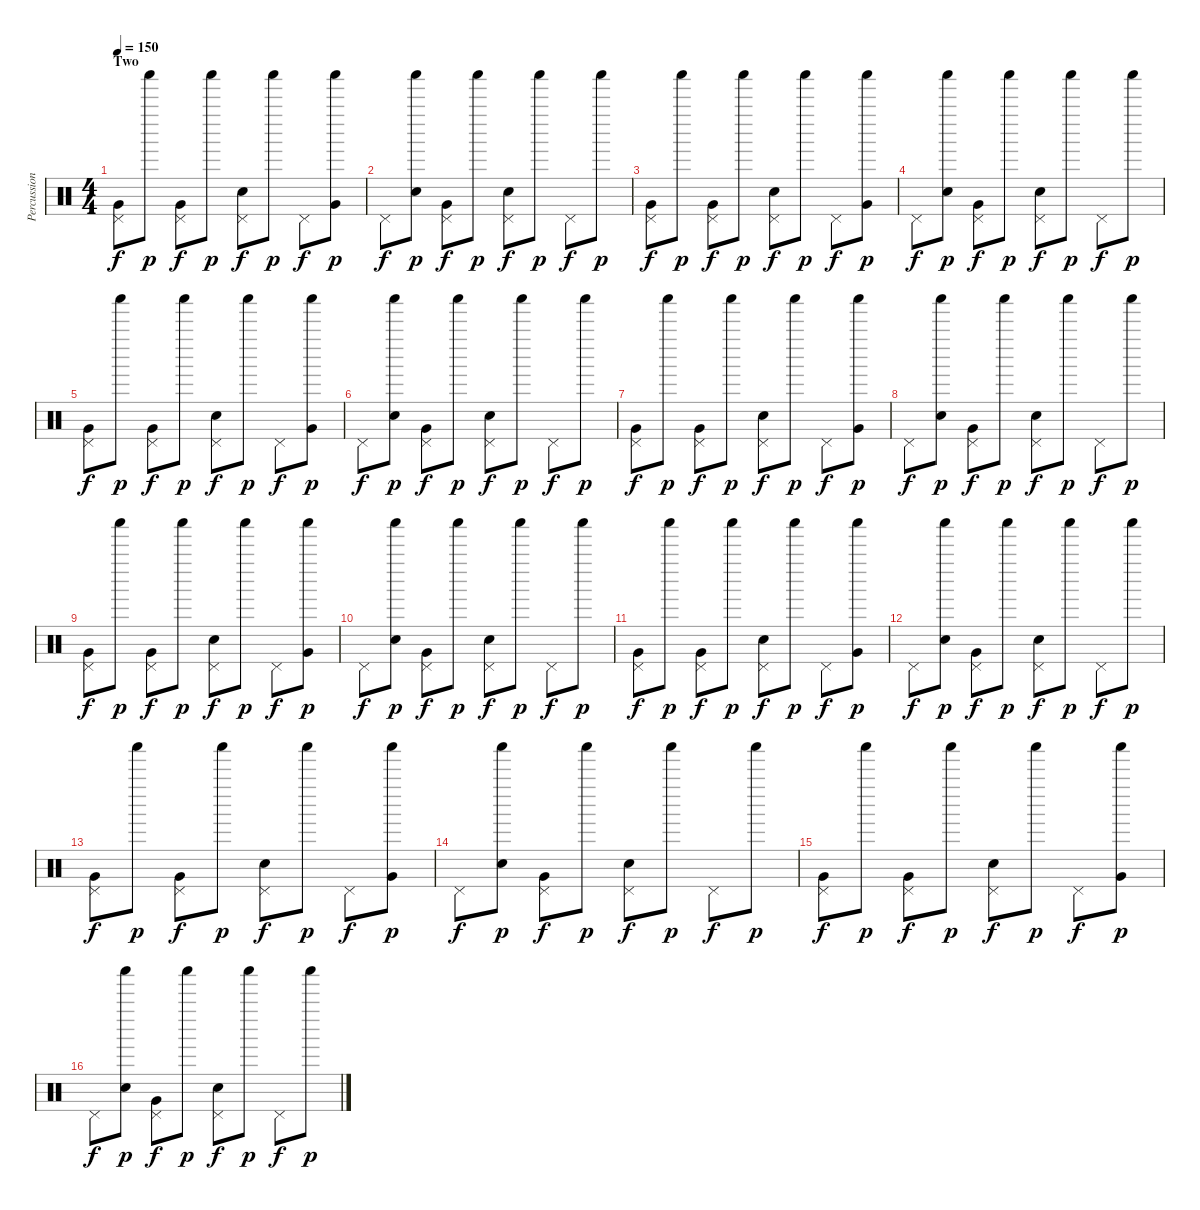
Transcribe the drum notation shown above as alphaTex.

\track ("Percussion" "Percussion") {instrument percussion}
\staff {score}
\articulation defaults
\ts (4 4)
\section ("" "Two")
\tempo 150
\clef neutral
\ks c
("Very Low Tom (hit)" "Pedal Hi-Hat (hit)").8{dy f} "Shaker (hit)".8{dy p} ("Very Low Tom (hit)" "Pedal Hi-Hat (hit)").8{dy f} "Shaker (hit)".8{dy p} ("Snare (hit) 2" "Pedal Hi-Hat (hit)").8{dy f} "Shaker (hit)".8{dy p} "Pedal Hi-Hat (hit)".8{dy f} ("Very Low Tom (hit)" "Shaker (hit)").8{dy p} |
"Pedal Hi-Hat (hit)".8{dy f} ("Snare (hit) 2" "Shaker (hit)").8{dy p} ("Very Low Tom (hit)" "Pedal Hi-Hat (hit)").8{dy f} "Shaker (hit)".8{dy p} ("Snare (hit) 2" "Pedal Hi-Hat (hit)").8{dy f} "Shaker (hit)".8{dy p} "Pedal Hi-Hat (hit)".8{dy f} "Shaker (hit)".8{dy p} |
("Very Low Tom (hit)" "Pedal Hi-Hat (hit)").8{dy f} "Shaker (hit)".8{dy p} ("Very Low Tom (hit)" "Pedal Hi-Hat (hit)").8{dy f} "Shaker (hit)".8{dy p} ("Snare (hit) 2" "Pedal Hi-Hat (hit)").8{dy f} "Shaker (hit)".8{dy p} "Pedal Hi-Hat (hit)".8{dy f} ("Very Low Tom (hit)" "Shaker (hit)").8{dy p} |
"Pedal Hi-Hat (hit)".8{dy f} ("Snare (hit) 2" "Shaker (hit)").8{dy p} ("Very Low Tom (hit)" "Pedal Hi-Hat (hit)").8{dy f} "Shaker (hit)".8{dy p} ("Snare (hit) 2" "Pedal Hi-Hat (hit)").8{dy f} "Shaker (hit)".8{dy p} "Pedal Hi-Hat (hit)".8{dy f} "Shaker (hit)".8{dy p} |
("Very Low Tom (hit)" "Pedal Hi-Hat (hit)").8{dy f} "Shaker (hit)".8{dy p} ("Very Low Tom (hit)" "Pedal Hi-Hat (hit)").8{dy f} "Shaker (hit)".8{dy p} ("Snare (hit) 2" "Pedal Hi-Hat (hit)").8{dy f} "Shaker (hit)".8{dy p} "Pedal Hi-Hat (hit)".8{dy f} ("Very Low Tom (hit)" "Shaker (hit)").8{dy p} |
"Pedal Hi-Hat (hit)".8{dy f} ("Snare (hit) 2" "Shaker (hit)").8{dy p} ("Very Low Tom (hit)" "Pedal Hi-Hat (hit)").8{dy f} "Shaker (hit)".8{dy p} ("Snare (hit) 2" "Pedal Hi-Hat (hit)").8{dy f} "Shaker (hit)".8{dy p} "Pedal Hi-Hat (hit)".8{dy f} "Shaker (hit)".8{dy p} |
("Very Low Tom (hit)" "Pedal Hi-Hat (hit)").8{dy f} "Shaker (hit)".8{dy p} ("Very Low Tom (hit)" "Pedal Hi-Hat (hit)").8{dy f} "Shaker (hit)".8{dy p} ("Snare (hit) 2" "Pedal Hi-Hat (hit)").8{dy f} "Shaker (hit)".8{dy p} "Pedal Hi-Hat (hit)".8{dy f} ("Very Low Tom (hit)" "Shaker (hit)").8{dy p} |
"Pedal Hi-Hat (hit)".8{dy f} ("Snare (hit) 2" "Shaker (hit)").8{dy p} ("Very Low Tom (hit)" "Pedal Hi-Hat (hit)").8{dy f} "Shaker (hit)".8{dy p} ("Snare (hit) 2" "Pedal Hi-Hat (hit)").8{dy f} "Shaker (hit)".8{dy p} "Pedal Hi-Hat (hit)".8{dy f} "Shaker (hit)".8{dy p} |
("Very Low Tom (hit)" "Pedal Hi-Hat (hit)").8{dy f} "Shaker (hit)".8{dy p} ("Very Low Tom (hit)" "Pedal Hi-Hat (hit)").8{dy f} "Shaker (hit)".8{dy p} ("Snare (hit) 2" "Pedal Hi-Hat (hit)").8{dy f} "Shaker (hit)".8{dy p} "Pedal Hi-Hat (hit)".8{dy f} ("Very Low Tom (hit)" "Shaker (hit)").8{dy p} |
"Pedal Hi-Hat (hit)".8{dy f} ("Snare (hit) 2" "Shaker (hit)").8{dy p} ("Very Low Tom (hit)" "Pedal Hi-Hat (hit)").8{dy f} "Shaker (hit)".8{dy p} ("Snare (hit) 2" "Pedal Hi-Hat (hit)").8{dy f} "Shaker (hit)".8{dy p} "Pedal Hi-Hat (hit)".8{dy f} "Shaker (hit)".8{dy p} |
("Very Low Tom (hit)" "Pedal Hi-Hat (hit)").8{dy f} "Shaker (hit)".8{dy p} ("Very Low Tom (hit)" "Pedal Hi-Hat (hit)").8{dy f} "Shaker (hit)".8{dy p} ("Snare (hit) 2" "Pedal Hi-Hat (hit)").8{dy f} "Shaker (hit)".8{dy p} "Pedal Hi-Hat (hit)".8{dy f} ("Very Low Tom (hit)" "Shaker (hit)").8{dy p} |
"Pedal Hi-Hat (hit)".8{dy f} ("Snare (hit) 2" "Shaker (hit)").8{dy p} ("Very Low Tom (hit)" "Pedal Hi-Hat (hit)").8{dy f} "Shaker (hit)".8{dy p} ("Snare (hit) 2" "Pedal Hi-Hat (hit)").8{dy f} "Shaker (hit)".8{dy p} "Pedal Hi-Hat (hit)".8{dy f} "Shaker (hit)".8{dy p} |
("Very Low Tom (hit)" "Pedal Hi-Hat (hit)").8{dy f} "Shaker (hit)".8{dy p} ("Very Low Tom (hit)" "Pedal Hi-Hat (hit)").8{dy f} "Shaker (hit)".8{dy p} ("Snare (hit) 2" "Pedal Hi-Hat (hit)").8{dy f} "Shaker (hit)".8{dy p} "Pedal Hi-Hat (hit)".8{dy f} ("Very Low Tom (hit)" "Shaker (hit)").8{dy p} |
"Pedal Hi-Hat (hit)".8{dy f} ("Snare (hit) 2" "Shaker (hit)").8{dy p} ("Very Low Tom (hit)" "Pedal Hi-Hat (hit)").8{dy f} "Shaker (hit)".8{dy p} ("Snare (hit) 2" "Pedal Hi-Hat (hit)").8{dy f} "Shaker (hit)".8{dy p} "Pedal Hi-Hat (hit)".8{dy f} "Shaker (hit)".8{dy p} |
("Very Low Tom (hit)" "Pedal Hi-Hat (hit)").8{dy f} "Shaker (hit)".8{dy p} ("Very Low Tom (hit)" "Pedal Hi-Hat (hit)").8{dy f} "Shaker (hit)".8{dy p} ("Snare (hit) 2" "Pedal Hi-Hat (hit)").8{dy f} "Shaker (hit)".8{dy p} "Pedal Hi-Hat (hit)".8{dy f} ("Very Low Tom (hit)" "Shaker (hit)").8{dy p} |
"Pedal Hi-Hat (hit)".8{dy f} ("Snare (hit) 2" "Shaker (hit)").8{dy p} ("Very Low Tom (hit)" "Pedal Hi-Hat (hit)").8{dy f} "Shaker (hit)".8{dy p} ("Snare (hit) 2" "Pedal Hi-Hat (hit)").8{dy f} "Shaker (hit)".8{dy p} "Pedal Hi-Hat (hit)".8{dy f} "Shaker (hit)".8{dy p}
